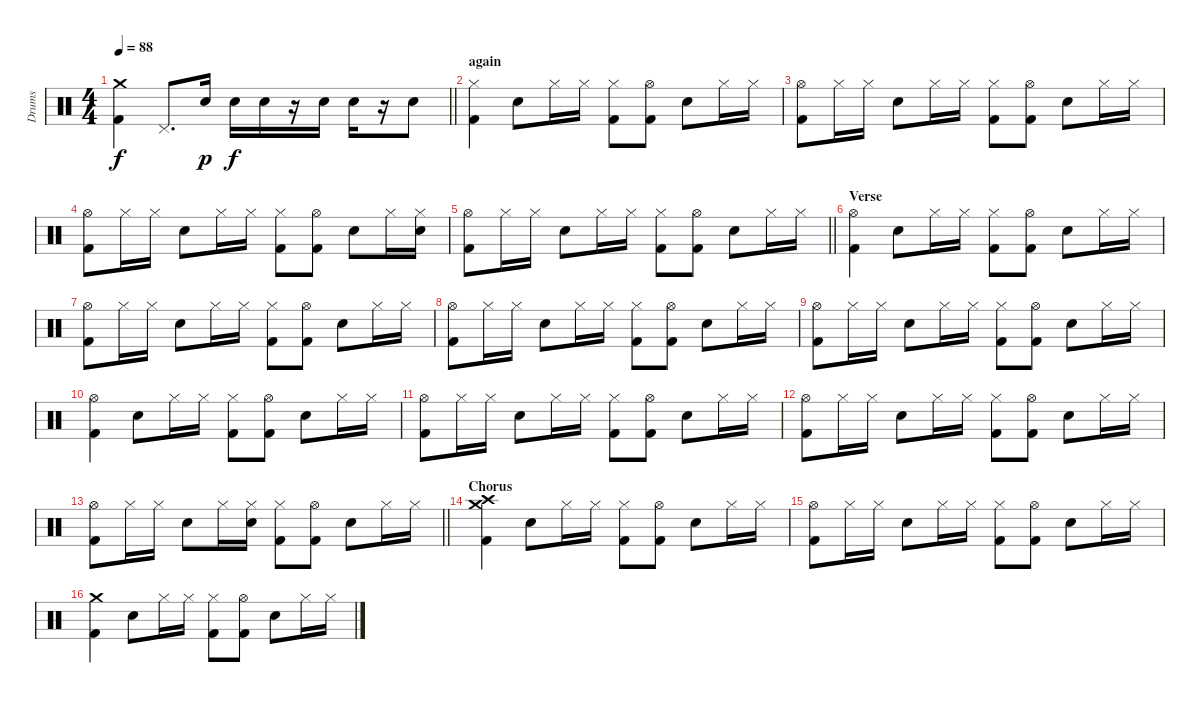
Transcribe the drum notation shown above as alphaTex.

\track ("Drums" "Drums") {instrument percussion}
\staff {score}
\articulation defaults
\ts (4 4)
\tempo 88
\clef neutral
\barLineRight lightlight
\ks c
("Crash medium (hit)" "Kick (hit) 2").4{dy f} "Pedal Hi-Hat (hit)".8{d} "Electric Snare (hit)".16{dy p} "Electric Snare (hit)".16{dy f} "Electric Snare (hit)".16 r.16 "Electric Snare (hit)".16 "Electric Snare (hit)".16 r.16 "Electric Snare (hit)".8 |
\section ("" "again")
("Hi-Hat (closed)" "Kick (hit) 2").4 "Electric Snare (hit)".8 "Hi-Hat (closed)".16 "Hi-Hat (closed)".16 ("Hi-Hat (closed)" "Kick (hit) 2").8 ("Hi-Hat (open)" "Kick (hit) 2").8 "Electric Snare (hit)".8 "Hi-Hat (closed)".16 "Hi-Hat (closed)".16 |
("Hi-Hat (open)" "Kick (hit) 2").8 "Hi-Hat (closed)".16 "Hi-Hat (closed)".16 "Electric Snare (hit)".8 "Hi-Hat (closed)".16 "Hi-Hat (closed)".16 ("Hi-Hat (closed)" "Kick (hit) 2").8 ("Hi-Hat (open)" "Kick (hit) 2").8 "Electric Snare (hit)".8 "Hi-Hat (closed)".16 "Hi-Hat (closed)".16 |
("Hi-Hat (open)" "Kick (hit) 2").8 "Hi-Hat (closed)".16 "Hi-Hat (closed)".16 "Electric Snare (hit)".8 "Hi-Hat (closed)".16 "Hi-Hat (closed)".16 ("Hi-Hat (closed)" "Kick (hit) 2").8 ("Hi-Hat (open)" "Kick (hit) 2").8 "Electric Snare (hit)".8 "Hi-Hat (closed)".16 ("Hi-Hat (closed)" "Electric Snare (hit)").16 |
\barLineRight lightlight
("Hi-Hat (open)" "Kick (hit) 2").8 "Hi-Hat (closed)".16 "Hi-Hat (closed)".16 "Electric Snare (hit)".8 "Hi-Hat (closed)".16 "Hi-Hat (closed)".16 ("Hi-Hat (closed)" "Kick (hit) 2").8 ("Hi-Hat (open)" "Kick (hit) 2").8 "Electric Snare (hit)".8 "Hi-Hat (closed)".16 "Hi-Hat (closed)".16 |
\section ("" "Verse")
("Hi-Hat (open)" "Kick (hit) 2").4 "Electric Snare (hit)".8 "Hi-Hat (closed)".16 "Hi-Hat (closed)".16 ("Hi-Hat (closed)" "Kick (hit) 2").8 ("Hi-Hat (open)" "Kick (hit) 2").8 "Electric Snare (hit)".8 "Hi-Hat (closed)".16 "Hi-Hat (closed)".16 |
("Hi-Hat (open)" "Kick (hit) 2").8 "Hi-Hat (closed)".16 "Hi-Hat (closed)".16 "Electric Snare (hit)".8 "Hi-Hat (closed)".16 "Hi-Hat (closed)".16 ("Hi-Hat (closed)" "Kick (hit) 2").8 ("Hi-Hat (open)" "Kick (hit) 2").8 "Electric Snare (hit)".8 "Hi-Hat (closed)".16 "Hi-Hat (closed)".16 |
("Hi-Hat (open)" "Kick (hit) 2").8 "Hi-Hat (closed)".16 "Hi-Hat (closed)".16 "Electric Snare (hit)".8 "Hi-Hat (closed)".16 "Hi-Hat (closed)".16 ("Hi-Hat (closed)" "Kick (hit) 2").8 ("Hi-Hat (open)" "Kick (hit) 2").8 "Electric Snare (hit)".8 "Hi-Hat (closed)".16 "Hi-Hat (closed)".16 |
("Hi-Hat (open)" "Kick (hit) 2").8 "Hi-Hat (closed)".16 "Hi-Hat (closed)".16 "Electric Snare (hit)".8 "Hi-Hat (closed)".16 "Hi-Hat (closed)".16 ("Hi-Hat (closed)" "Kick (hit) 2").8 ("Hi-Hat (open)" "Kick (hit) 2").8 "Electric Snare (hit)".8 "Hi-Hat (closed)".16 "Hi-Hat (closed)".16 |
("Hi-Hat (open)" "Kick (hit) 2").4 "Electric Snare (hit)".8 "Hi-Hat (closed)".16 "Hi-Hat (closed)".16 ("Hi-Hat (closed)" "Kick (hit) 2").8 ("Hi-Hat (open)" "Kick (hit) 2").8 "Electric Snare (hit)".8 "Hi-Hat (closed)".16 "Hi-Hat (closed)".16 |
("Hi-Hat (open)" "Kick (hit) 2").8 "Hi-Hat (closed)".16 "Hi-Hat (closed)".16 "Electric Snare (hit)".8 "Hi-Hat (closed)".16 "Hi-Hat (closed)".16 ("Hi-Hat (closed)" "Kick (hit) 2").8 ("Hi-Hat (open)" "Kick (hit) 2").8 "Electric Snare (hit)".8 "Hi-Hat (closed)".16 "Hi-Hat (closed)".16 |
("Hi-Hat (open)" "Kick (hit) 2").8 "Hi-Hat (closed)".16 "Hi-Hat (closed)".16 "Electric Snare (hit)".8 "Hi-Hat (closed)".16 "Hi-Hat (closed)".16 ("Hi-Hat (closed)" "Kick (hit) 2").8 ("Hi-Hat (open)" "Kick (hit) 2").8 "Electric Snare (hit)".8 "Hi-Hat (closed)".16 "Hi-Hat (closed)".16 |
\barLineRight lightlight
("Hi-Hat (open)" "Kick (hit) 2").8 "Hi-Hat (closed)".16 "Hi-Hat (closed)".16 "Electric Snare (hit)".8 "Hi-Hat (closed)".16 ("Hi-Hat (closed)" "Electric Snare (hit)").16 ("Hi-Hat (closed)" "Kick (hit) 2").8 ("Hi-Hat (open)" "Kick (hit) 2").8 "Electric Snare (hit)".8 "Hi-Hat (closed)".16 "Hi-Hat (closed)".16 |
\section ("" "Chorus")
("Crash medium (hit)" "Crash high (hit)" "Kick (hit) 2").4 "Electric Snare (hit)".8 "Hi-Hat (closed)".16 "Hi-Hat (closed)".16 ("Hi-Hat (closed)" "Kick (hit) 2").8 ("Hi-Hat (open)" "Kick (hit) 2").8 "Electric Snare (hit)".8 "Hi-Hat (closed)".16 "Hi-Hat (closed)".16 |
("Hi-Hat (open)" "Kick (hit) 2").8 "Hi-Hat (closed)".16 "Hi-Hat (closed)".16 "Electric Snare (hit)".8 "Hi-Hat (closed)".16 "Hi-Hat (closed)".16 ("Hi-Hat (closed)" "Kick (hit) 2").8 ("Hi-Hat (open)" "Kick (hit) 2").8 "Electric Snare (hit)".8 "Hi-Hat (closed)".16 "Hi-Hat (closed)".16 |
("Crash medium (hit)" "Kick (hit) 2").4 "Electric Snare (hit)".8 "Hi-Hat (closed)".16 "Hi-Hat (closed)".16 ("Hi-Hat (closed)" "Kick (hit) 2").8 ("Hi-Hat (open)" "Kick (hit) 2").8 "Electric Snare (hit)".8 "Hi-Hat (closed)".16 "Hi-Hat (closed)".16
